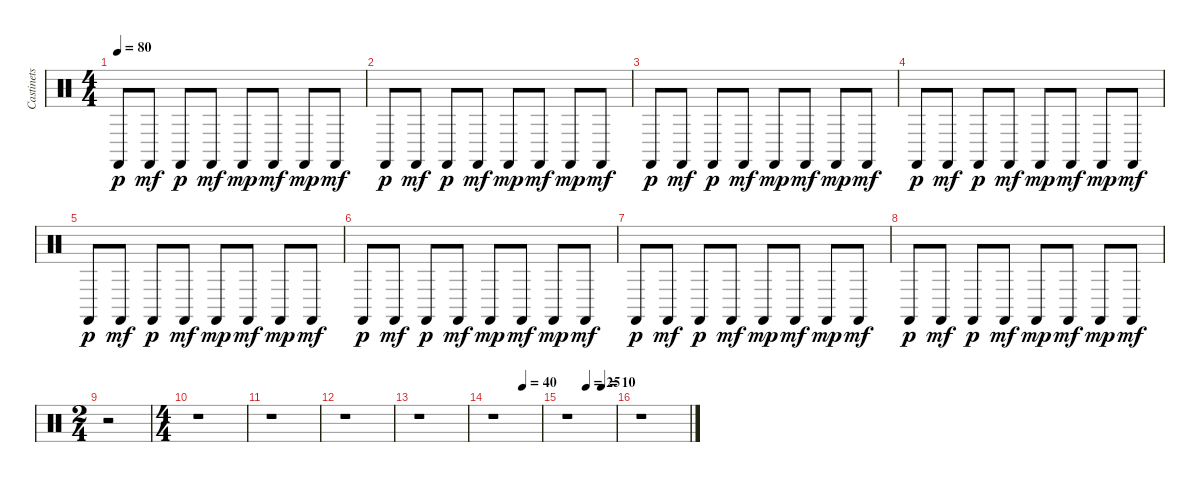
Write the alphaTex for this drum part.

\track ("Castinets" "Castinets") {instrument percussion}
\staff {score}
\articulation defaults
\ts (4 4)
\tempo 80
\clef neutral
\ks c "Castanets (hit)".8{dy p} "Castanets (hit)".8{dy mf} "Castanets (hit)".8{dy p} "Castanets (hit)".8{dy mf} "Castanets (hit)".8{dy mp} "Castanets (hit)".8{dy mf} "Castanets (hit)".8{dy mp} "Castanets (hit)".8{dy mf}
|
"Castanets (hit)".8{dy p} "Castanets (hit)".8{dy mf} "Castanets (hit)".8{dy p} "Castanets (hit)".8{dy mf} "Castanets (hit)".8{dy mp} "Castanets (hit)".8{dy mf} "Castanets (hit)".8{dy mp} "Castanets (hit)".8{dy mf} |
"Castanets (hit)".8{dy p} "Castanets (hit)".8{dy mf} "Castanets (hit)".8{dy p} "Castanets (hit)".8{dy mf} "Castanets (hit)".8{dy mp} "Castanets (hit)".8{dy mf} "Castanets (hit)".8{dy mp} "Castanets (hit)".8{dy mf} |
"Castanets (hit)".8{dy p} "Castanets (hit)".8{dy mf} "Castanets (hit)".8{dy p} "Castanets (hit)".8{dy mf} "Castanets (hit)".8{dy mp} "Castanets (hit)".8{dy mf} "Castanets (hit)".8{dy mp} "Castanets (hit)".8{dy mf} |
"Castanets (hit)".8{dy p} "Castanets (hit)".8{dy mf} "Castanets (hit)".8{dy p} "Castanets (hit)".8{dy mf} "Castanets (hit)".8{dy mp} "Castanets (hit)".8{dy mf} "Castanets (hit)".8{dy mp} "Castanets (hit)".8{dy mf} |
"Castanets (hit)".8{dy p} "Castanets (hit)".8{dy mf} "Castanets (hit)".8{dy p} "Castanets (hit)".8{dy mf} "Castanets (hit)".8{dy mp} "Castanets (hit)".8{dy mf} "Castanets (hit)".8{dy mp} "Castanets (hit)".8{dy mf} |
"Castanets (hit)".8{dy p} "Castanets (hit)".8{dy mf} "Castanets (hit)".8{dy p} "Castanets (hit)".8{dy mf} "Castanets (hit)".8{dy mp} "Castanets (hit)".8{dy mf} "Castanets (hit)".8{dy mp} "Castanets (hit)".8{dy mf} |
"Castanets (hit)".8{dy p} "Castanets (hit)".8{dy mf} "Castanets (hit)".8{dy p} "Castanets (hit)".8{dy mf} "Castanets (hit)".8{dy mp} "Castanets (hit)".8{dy mf} "Castanets (hit)".8{dy mp} "Castanets (hit)".8{dy mf} |
\ts (2 4)
r.2 |
\ts (4 4)
r.1 |
r.1 |
r.1 |
r.1 |
\tempo (40 0.625)
r.1 |
\tempo (25 0.40625)
\tempo (10 0.71875)
r.1 |
r.1
